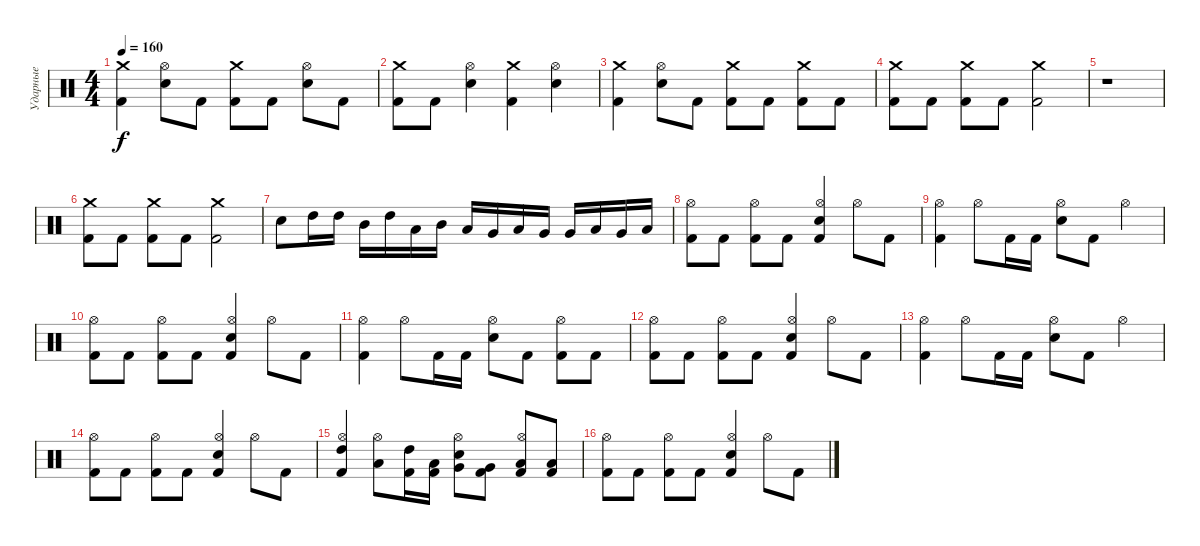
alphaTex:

\track ("Ударные" "Ударные") {instrument percussion}
\staff {score}
\articulation defaults
\ts (4 4)
\tempo 160
\clef neutral
\ks c
("Crash medium (hit)" "Kick (hit) 2").4{dy f} ("Hi-Hat (open)" "Snare (hit) 2").8 "Kick (hit) 2".8 ("Crash medium (hit)" "Kick (hit) 2").8 "Kick (hit) 2".8 ("Hi-Hat (open)" "Snare (hit) 2").8 "Kick (hit) 2".8 |
("Crash medium (hit)" "Kick (hit) 2").8 "Kick (hit) 2".8 ("Hi-Hat (open)" "Snare (hit) 2").4 ("Crash medium (hit)" "Kick (hit) 2").4 ("Hi-Hat (open)" "Snare (hit) 2").4 |
("Crash medium (hit)" "Kick (hit) 2").4 ("Hi-Hat (open)" "Snare (hit) 2").8 "Kick (hit) 2".8 ("Crash medium (hit)" "Kick (hit) 2").8 "Kick (hit) 2".8 ("Crash medium (hit)" "Kick (hit) 2").8 "Kick (hit) 2".8 |
("Crash medium (hit)" "Kick (hit) 2").8 "Kick (hit) 2".8 ("Crash medium (hit)" "Kick (hit) 2").8 "Kick (hit) 2".8 ("Crash medium (hit)" "Kick (hit) 2").2 |
r.1 |
("Crash medium (hit)" "Kick (hit) 2").8 "Kick (hit) 2".8 ("Crash medium (hit)" "Kick (hit) 2").8 "Kick (hit) 2".8 ("Crash medium (hit)" "Kick (hit) 2").2 |
"Snare (hit) 2".8 "High Tom (hit)".16 "High Tom (hit)".16 "Mid Tom (hit)".16 "High Tom (hit)".16 "Low Tom (hit)".16 "Mid Tom (hit)".16 "Low Tom (hit)".16 "Very Low Tom (hit)".16 "Low Tom (hit)".16 "Very Low Tom (hit)".16 "Very Low Tom (hit)".16 "Low Floor Tom (hit)".16 "Very Low Tom (hit)".16 "Low Floor Tom (hit)".16 |
("Hi-Hat (open)" "Kick (hit) 2").8 "Kick (hit) 2".8 ("Hi-Hat (open)" "Kick (hit) 2").8 "Kick (hit) 2".8 ("Hi-Hat (open)" "Snare (hit) 2" "Kick (hit) 2").4 "Hi-Hat (open)".8 "Kick (hit) 2".8 |
("Hi-Hat (open)" "Kick (hit) 2").4 "Hi-Hat (open)".8 "Kick (hit) 2".16 "Kick (hit) 2".16 ("Hi-Hat (open)" "Snare (hit) 2").8 "Kick (hit) 2".8 "Hi-Hat (open)".4 |
("Hi-Hat (open)" "Kick (hit) 2").8 "Kick (hit) 2".8 ("Hi-Hat (open)" "Kick (hit) 2").8 "Kick (hit) 2".8 ("Hi-Hat (open)" "Snare (hit) 2" "Kick (hit) 2").4 "Hi-Hat (open)".8 "Kick (hit) 2".8 |
("Hi-Hat (open)" "Kick (hit) 2").4 "Hi-Hat (open)".8 "Kick (hit) 2".16 "Kick (hit) 2".16 ("Hi-Hat (open)" "Snare (hit) 2").8 "Kick (hit) 2".8 ("Hi-Hat (open)" "Kick (hit) 2").8 "Kick (hit) 2".8 |
("Hi-Hat (open)" "Kick (hit) 2").8 "Kick (hit) 2".8 ("Hi-Hat (open)" "Kick (hit) 2").8 "Kick (hit) 2".8 ("Hi-Hat (open)" "Snare (hit) 2" "Kick (hit) 2").4 "Hi-Hat (open)".8 "Kick (hit) 2".8 |
("Hi-Hat (open)" "Kick (hit) 2").4 "Hi-Hat (open)".8 "Kick (hit) 2".16 "Kick (hit) 2".16 ("Hi-Hat (open)" "Snare (hit) 2").8 "Kick (hit) 2".8 "Hi-Hat (open)".4 |
("Hi-Hat (open)" "Kick (hit) 2").8 "Kick (hit) 2".8 ("Hi-Hat (open)" "Kick (hit) 2").8 "Kick (hit) 2".8 ("Hi-Hat (open)" "Snare (hit) 2" "Kick (hit) 2").4 "Hi-Hat (open)".8 "Kick (hit) 2".8 |
("Hi-Hat (open)" "High Tom (hit)" "Kick (hit) 2").4 ("Hi-Hat (open)" "Low Tom (hit)").8 ("High Tom (hit)" "Kick (hit) 2").16 ("Low Tom (hit)" "Kick (hit) 2").16 ("Hi-Hat (open)" "Very Low Tom (hit)" "Snare (hit) 2").8 ("Very Low Tom (hit)" "Kick (hit) 2").8 ("Hi-Hat (open)" "Low Floor Tom (hit)" "Kick (hit) 2").8 ("Low Floor Tom (hit)" "Kick (hit) 2").8 |
("Hi-Hat (open)" "Kick (hit) 2").8 "Kick (hit) 2".8 ("Hi-Hat (open)" "Kick (hit) 2").8 "Kick (hit) 2".8 ("Hi-Hat (open)" "Snare (hit) 2" "Kick (hit) 2").4 "Hi-Hat (open)".8 "Kick (hit) 2".8
